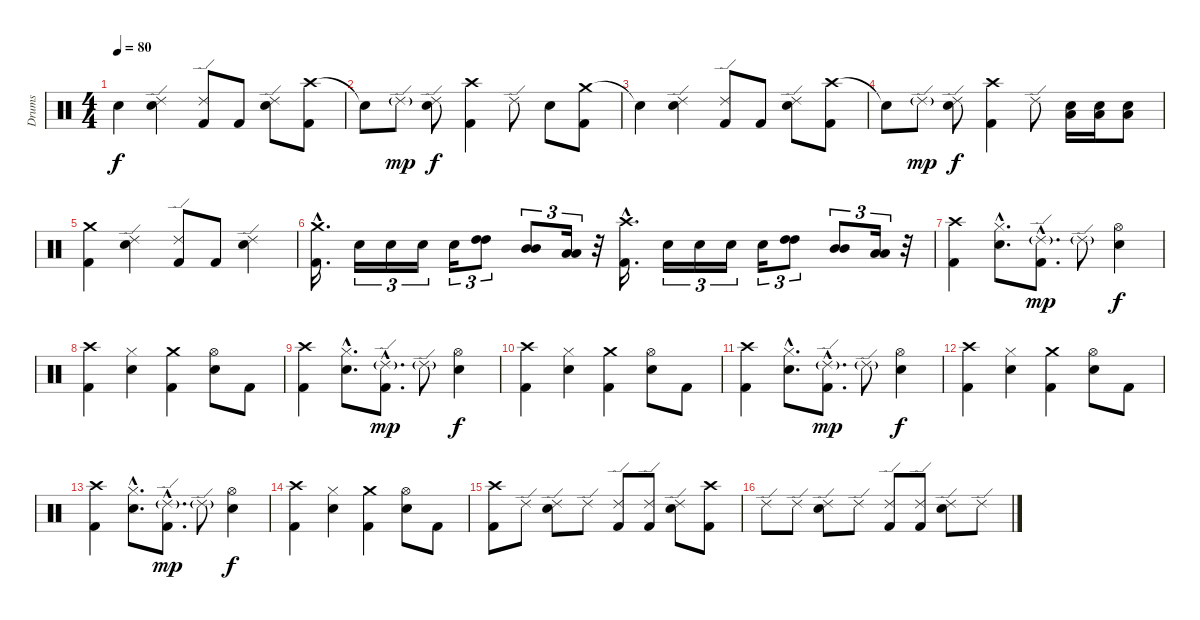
\track ("Drums" "Drums") {instrument percussion}
\staff {score}
\articulation defaults
\ts (4 4)
\tempo 80
\clef neutral
\ks c "Snare (hit)"{t}.4{dy f}
("Ride (edge) 2" "Snare (hit) 2").4 ("Ride (edge) 2" "Kick (hit) 2").8 "Kick (hit) 2".8 ("Ride (edge) 2" "Snare (hit) 2").8 ("Crash high (hit)" "Kick (hit) 2").8 |
"Snare (hit)"{t}.8 "Ride (edge) 2"{g}.8{dy mp} ("Ride (edge) 2" "Snare (hit) 2").8{dy f} ("Crash high (hit)" "Kick (hit) 2").4 "Ride (edge) 2".8 "Snare (hit) 2".8 ("Crash medium (hit)" "Kick (hit) 2").8 |
"Snare (hit)"{t}.4 ("Ride (edge) 2" "Snare (hit) 2").4 ("Ride (edge) 2" "Kick (hit) 2").8 "Kick (hit) 2".8 ("Ride (edge) 2" "Snare (hit) 2").8 ("Crash high (hit)" "Kick (hit) 2").8 |
"Snare (hit)"{t}.8 "Ride (edge) 2"{g}.8{dy mp} ("Ride (edge) 2" "Snare (hit) 2").8{dy f} ("Crash high (hit)" "Kick (hit) 2").4 "Ride (edge) 2".8 ("Snare (hit) 2" "Low Floor Tom (hit)").16 ("Snare (hit) 2" "Low Floor Tom (hit)").16 ("Snare (hit) 2" "Low Floor Tom (hit)").8 |
("Crash medium (hit)" "Kick (hit) 2").4 ("Ride (edge) 2" "Snare (hit) 2").4 ("Ride (edge) 2" "Kick (hit) 2").8 "Kick (hit) 2".8 ("Ride (edge) 2" "Snare (hit) 2").4 |
("Crash medium (hit)"{hac} "Kick (hit) 2"{hac}).16{d} "Snare (hit) 2".16{tu (3 2)} "Snare (hit) 2".16{tu (3 2)} "Snare (hit) 2".16{tu (3 2)} "Snare (hit) 2".16{tu (3 2)} ("High Tom (hit)" "High Tom (hit)").8{tu (3 2)} ("Mid Tom (hit)" "Mid Tom (hit)").8{tu (3 2)} ("Low Tom (hit)" "Low Tom (hit)").16{tu (3 2)} r.32 ("Crash high (hit)"{hac} "Kick (hit) 2"{hac}).16{d} "Snare (hit) 2".16{tu (3 2)} "Snare (hit) 2".16{tu (3 2)} "Snare (hit) 2".16{tu (3 2)} "Snare (hit) 2".16{tu (3 2)} ("High Tom (hit)" "High Tom (hit)").8{tu (3 2)} ("Mid Tom (hit)" "Mid Tom (hit)").8{tu (3 2)} ("Low Tom (hit)" "Low Tom (hit)").16{tu (3 2)} r.32 |
("Crash high (hit)" "Kick (hit) 2").4 ("Hi-Hat (closed)"{hac} "Snare (hit) 2"{hac}).8{d} ("Ride (edge) 2"{g hac} "Kick (hit) 2"{hac}).8{d dy mp} "Ride (edge) 2"{g}.8 ("Hi-Hat (open)" "Snare (hit) 2").4{dy f} |
("Crash high (hit)" "Kick (hit) 2").4 ("Hi-Hat (closed)" "Snare (hit) 2").4 ("Crash medium (hit)" "Kick (hit) 2").4 ("Hi-Hat (open)" "Snare (hit) 2").8 "Kick (hit) 2".8 |
("Crash high (hit)" "Kick (hit) 2").4 ("Hi-Hat (closed)"{hac} "Snare (hit) 2"{hac}).8{d} ("Ride (edge) 2"{g hac} "Kick (hit) 2"{hac}).8{d dy mp} "Ride (edge) 2"{g}.8 ("Hi-Hat (open)" "Snare (hit) 2").4{dy f} |
("Crash high (hit)" "Kick (hit) 2").4 ("Hi-Hat (closed)" "Snare (hit) 2").4 ("Crash medium (hit)" "Kick (hit) 2").4 ("Hi-Hat (open)" "Snare (hit) 2").8 "Kick (hit) 2".8 |
("Crash high (hit)" "Kick (hit) 2").4 ("Hi-Hat (closed)"{hac} "Snare (hit) 2"{hac}).8{d} ("Ride (edge) 2"{g hac} "Kick (hit) 2"{hac}).8{d dy mp} "Ride (edge) 2"{g}.8 ("Hi-Hat (open)" "Snare (hit) 2").4{dy f} |
("Crash high (hit)" "Kick (hit) 2").4 ("Hi-Hat (closed)" "Snare (hit) 2").4 ("Crash medium (hit)" "Kick (hit) 2").4 ("Hi-Hat (open)" "Snare (hit) 2").8 "Kick (hit) 2".8 |
("Crash high (hit)" "Kick (hit) 2").4 ("Hi-Hat (closed)"{hac} "Snare (hit) 2"{hac}).8{d} ("Ride (edge) 2"{g hac} "Kick (hit) 2"{hac}).8{d dy mp} "Ride (edge) 2"{g}.8 ("Hi-Hat (open)" "Snare (hit) 2").4{dy f} |
("Crash high (hit)" "Kick (hit) 2").4 ("Hi-Hat (closed)" "Snare (hit) 2").4 ("Crash medium (hit)" "Kick (hit) 2").4 ("Hi-Hat (open)" "Snare (hit) 2").8 "Kick (hit) 2".8 |
("Crash high (hit)" "Kick (hit) 2").8 "Ride (edge) 2".8 ("Ride (edge) 2" "Snare (hit) 2").8 "Ride (edge) 2".8 ("Ride (edge) 2" "Kick (hit) 2").8 ("Ride (edge) 2" "Kick (hit) 2").8 ("Ride (edge) 2" "Snare (hit) 2").8 ("Crash high (hit)" "Kick (hit) 2").8 |
"Ride (edge) 2".8 "Ride (edge) 2".8 ("Ride (edge) 2" "Snare (hit) 2").8 "Ride (edge) 2".8 ("Ride (edge) 2" "Kick (hit) 2").8 ("Ride (edge) 2" "Kick (hit) 2").8 ("Ride (edge) 2" "Snare (hit) 2").8 "Ride (edge) 2".8
